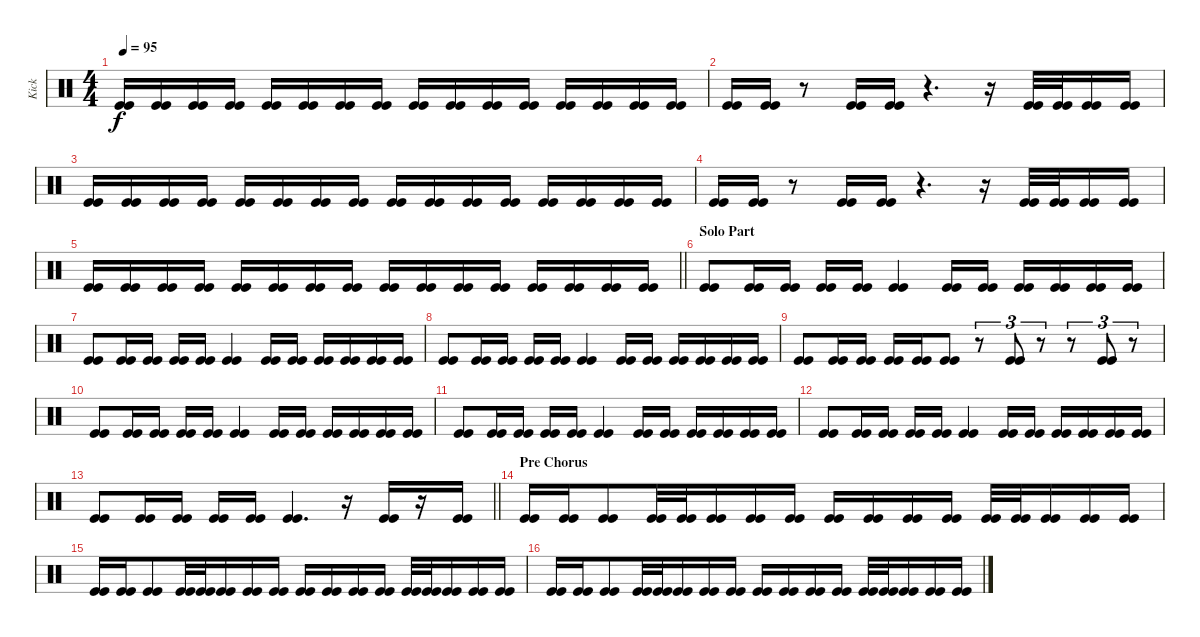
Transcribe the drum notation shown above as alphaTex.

\track ("Kick" "Kick") {instrument percussion}
\staff {score}
\articulation defaults
\ts (4 4)
\tempo 95
\clef neutral
\ks c
("Kick (hit)" "Kick (hit)").16{dy f beam merge} ("Kick (hit)" "Kick (hit)").16 ("Kick (hit)" "Kick (hit)").16 ("Kick (hit)" "Kick (hit)").16 ("Kick (hit)" "Kick (hit)").16 ("Kick (hit)" "Kick (hit)").16 ("Kick (hit)" "Kick (hit)").16 ("Kick (hit)" "Kick (hit)").16 ("Kick (hit)" "Kick (hit)").16 ("Kick (hit)" "Kick (hit)").16 ("Kick (hit)" "Kick (hit)").16 ("Kick (hit)" "Kick (hit)").16 ("Kick (hit)" "Kick (hit)").16 ("Kick (hit)" "Kick (hit)").16 ("Kick (hit)" "Kick (hit)").16{beam merge} ("Kick (hit)" "Kick (hit)").16 |
("Kick (hit)" "Kick (hit)").16 ("Kick (hit)" "Kick (hit)").16 r.8{beam merge} ("Kick (hit)" "Kick (hit)").16 ("Kick (hit)" "Kick (hit)").16 r.4{d} r.16 ("Kick (hit)" "Kick (hit)").32{beam merge} ("Kick (hit)" "Kick (hit)").32{beam merge} ("Kick (hit)" "Kick (hit)").16 ("Kick (hit)" "Kick (hit)").16 |
("Kick (hit)" "Kick (hit)").16{beam merge} ("Kick (hit)" "Kick (hit)").16 ("Kick (hit)" "Kick (hit)").16 ("Kick (hit)" "Kick (hit)").16 ("Kick (hit)" "Kick (hit)").16 ("Kick (hit)" "Kick (hit)").16 ("Kick (hit)" "Kick (hit)").16 ("Kick (hit)" "Kick (hit)").16 ("Kick (hit)" "Kick (hit)").16 ("Kick (hit)" "Kick (hit)").16 ("Kick (hit)" "Kick (hit)").16 ("Kick (hit)" "Kick (hit)").16 ("Kick (hit)" "Kick (hit)").16 ("Kick (hit)" "Kick (hit)").16 ("Kick (hit)" "Kick (hit)").16{beam merge} ("Kick (hit)" "Kick (hit)").16 |
("Kick (hit)" "Kick (hit)").16 ("Kick (hit)" "Kick (hit)").16 r.8{beam merge} ("Kick (hit)" "Kick (hit)").16 ("Kick (hit)" "Kick (hit)").16 r.4{d} r.16 ("Kick (hit)" "Kick (hit)").32{beam merge} ("Kick (hit)" "Kick (hit)").32{beam merge} ("Kick (hit)" "Kick (hit)").16 ("Kick (hit)" "Kick (hit)").16 |
\barLineRight lightlight
("Kick (hit)" "Kick (hit)").16{beam merge} ("Kick (hit)" "Kick (hit)").16 ("Kick (hit)" "Kick (hit)").16 ("Kick (hit)" "Kick (hit)").16 ("Kick (hit)" "Kick (hit)").16 ("Kick (hit)" "Kick (hit)").16 ("Kick (hit)" "Kick (hit)").16 ("Kick (hit)" "Kick (hit)").16 ("Kick (hit)" "Kick (hit)").16 ("Kick (hit)" "Kick (hit)").16 ("Kick (hit)" "Kick (hit)").16 ("Kick (hit)" "Kick (hit)").16 ("Kick (hit)" "Kick (hit)").16 ("Kick (hit)" "Kick (hit)").16 ("Kick (hit)" "Kick (hit)").16 ("Kick (hit)" "Kick (hit)").16 |
\section ("" "Solo Part")
("Kick (hit)" "Kick (hit)").8 ("Kick (hit)" "Kick (hit)").16 ("Kick (hit)" "Kick (hit)").16 ("Kick (hit)" "Kick (hit)").16{beam merge} ("Kick (hit)" "Kick (hit)").16 ("Kick (hit)" "Kick (hit)").4 ("Kick (hit)" "Kick (hit)").16{beam merge} ("Kick (hit)" "Kick (hit)").16 ("Kick (hit)" "Kick (hit)").16 ("Kick (hit)" "Kick (hit)").16 ("Kick (hit)" "Kick (hit)").16 ("Kick (hit)" "Kick (hit)").16 |
("Kick (hit)" "Kick (hit)").8 ("Kick (hit)" "Kick (hit)").16 ("Kick (hit)" "Kick (hit)").16 ("Kick (hit)" "Kick (hit)").16{beam merge} ("Kick (hit)" "Kick (hit)").16 ("Kick (hit)" "Kick (hit)").4 ("Kick (hit)" "Kick (hit)").16{beam merge} ("Kick (hit)" "Kick (hit)").16 ("Kick (hit)" "Kick (hit)").16 ("Kick (hit)" "Kick (hit)").16 ("Kick (hit)" "Kick (hit)").16 ("Kick (hit)" "Kick (hit)").16 |
("Kick (hit)" "Kick (hit)").8 ("Kick (hit)" "Kick (hit)").16 ("Kick (hit)" "Kick (hit)").16 ("Kick (hit)" "Kick (hit)").16{beam merge} ("Kick (hit)" "Kick (hit)").16 ("Kick (hit)" "Kick (hit)").4 ("Kick (hit)" "Kick (hit)").16{beam merge} ("Kick (hit)" "Kick (hit)").16 ("Kick (hit)" "Kick (hit)").16 ("Kick (hit)" "Kick (hit)").16 ("Kick (hit)" "Kick (hit)").16 ("Kick (hit)" "Kick (hit)").16 |
("Kick (hit)" "Kick (hit)").8 ("Kick (hit)" "Kick (hit)").16 ("Kick (hit)" "Kick (hit)").16 ("Kick (hit)" "Kick (hit)").16{beam merge} ("Kick (hit)" "Kick (hit)").16 ("Kick (hit)" "Kick (hit)").8 r.8{tu (3 2) beam merge} ("Kick (hit)" "Kick (hit)").8{tu (3 2)} r.8{tu (3 2)} r.8{tu (3 2)} ("Kick (hit)" "Kick (hit)").8{tu (3 2)} r.8{tu (3 2)} |
("Kick (hit)" "Kick (hit)").8 ("Kick (hit)" "Kick (hit)").16 ("Kick (hit)" "Kick (hit)").16 ("Kick (hit)" "Kick (hit)").16{beam merge} ("Kick (hit)" "Kick (hit)").16 ("Kick (hit)" "Kick (hit)").4 ("Kick (hit)" "Kick (hit)").16{beam merge} ("Kick (hit)" "Kick (hit)").16 ("Kick (hit)" "Kick (hit)").16 ("Kick (hit)" "Kick (hit)").16 ("Kick (hit)" "Kick (hit)").16 ("Kick (hit)" "Kick (hit)").16 |
("Kick (hit)" "Kick (hit)").8 ("Kick (hit)" "Kick (hit)").16 ("Kick (hit)" "Kick (hit)").16 ("Kick (hit)" "Kick (hit)").16{beam merge} ("Kick (hit)" "Kick (hit)").16 ("Kick (hit)" "Kick (hit)").4 ("Kick (hit)" "Kick (hit)").16{beam merge} ("Kick (hit)" "Kick (hit)").16 ("Kick (hit)" "Kick (hit)").16 ("Kick (hit)" "Kick (hit)").16 ("Kick (hit)" "Kick (hit)").16 ("Kick (hit)" "Kick (hit)").16 |
("Kick (hit)" "Kick (hit)").8 ("Kick (hit)" "Kick (hit)").16 ("Kick (hit)" "Kick (hit)").16 ("Kick (hit)" "Kick (hit)").16{beam merge} ("Kick (hit)" "Kick (hit)").16 ("Kick (hit)" "Kick (hit)").4 ("Kick (hit)" "Kick (hit)").16{beam merge} ("Kick (hit)" "Kick (hit)").16 ("Kick (hit)" "Kick (hit)").16 ("Kick (hit)" "Kick (hit)").16 ("Kick (hit)" "Kick (hit)").16 ("Kick (hit)" "Kick (hit)").16 |
\barLineRight lightlight
("Kick (hit)" "Kick (hit)").8 ("Kick (hit)" "Kick (hit)").16 ("Kick (hit)" "Kick (hit)").16 ("Kick (hit)" "Kick (hit)").16{beam merge} ("Kick (hit)" "Kick (hit)").16 ("Kick (hit)" "Kick (hit)").4{d} r.16 ("Kick (hit)" "Kick (hit)").16 r.16 ("Kick (hit)" "Kick (hit)").16 |
\section ("" "Pre Chorus")
("Kick (hit)" "Kick (hit)").16{beam merge} ("Kick (hit)" "Kick (hit)").16 ("Kick (hit)" "Kick (hit)").8{beam merge} ("Kick (hit)" "Kick (hit)").32 ("Kick (hit)" "Kick (hit)").32 ("Kick (hit)" "Kick (hit)").16 ("Kick (hit)" "Kick (hit)").16 ("Kick (hit)" "Kick (hit)").16 ("Kick (hit)" "Kick (hit)").16 ("Kick (hit)" "Kick (hit)").16 ("Kick (hit)" "Kick (hit)").16 ("Kick (hit)" "Kick (hit)").16 ("Kick (hit)" "Kick (hit)").32{beam merge} ("Kick (hit)" "Kick (hit)").32 ("Kick (hit)" "Kick (hit)").16{beam merge} ("Kick (hit)" "Kick (hit)").16 ("Kick (hit)" "Kick (hit)").16 |
("Kick (hit)" "Kick (hit)").16{beam merge} ("Kick (hit)" "Kick (hit)").16 ("Kick (hit)" "Kick (hit)").8{beam merge} ("Kick (hit)" "Kick (hit)").32 ("Kick (hit)" "Kick (hit)").32 ("Kick (hit)" "Kick (hit)").16 ("Kick (hit)" "Kick (hit)").16 ("Kick (hit)" "Kick (hit)").16 ("Kick (hit)" "Kick (hit)").16 ("Kick (hit)" "Kick (hit)").16 ("Kick (hit)" "Kick (hit)").16 ("Kick (hit)" "Kick (hit)").16 ("Kick (hit)" "Kick (hit)").32{beam merge} ("Kick (hit)" "Kick (hit)").32 ("Kick (hit)" "Kick (hit)").16{beam merge} ("Kick (hit)" "Kick (hit)").16 ("Kick (hit)" "Kick (hit)").16 |
("Kick (hit)" "Kick (hit)").16{beam merge} ("Kick (hit)" "Kick (hit)").16 ("Kick (hit)" "Kick (hit)").8{beam merge} ("Kick (hit)" "Kick (hit)").32 ("Kick (hit)" "Kick (hit)").32 ("Kick (hit)" "Kick (hit)").16 ("Kick (hit)" "Kick (hit)").16 ("Kick (hit)" "Kick (hit)").16 ("Kick (hit)" "Kick (hit)").16 ("Kick (hit)" "Kick (hit)").16 ("Kick (hit)" "Kick (hit)").16 ("Kick (hit)" "Kick (hit)").16 ("Kick (hit)" "Kick (hit)").32{beam merge} ("Kick (hit)" "Kick (hit)").32 ("Kick (hit)" "Kick (hit)").16{beam merge} ("Kick (hit)" "Kick (hit)").16 ("Kick (hit)" "Kick (hit)").16
